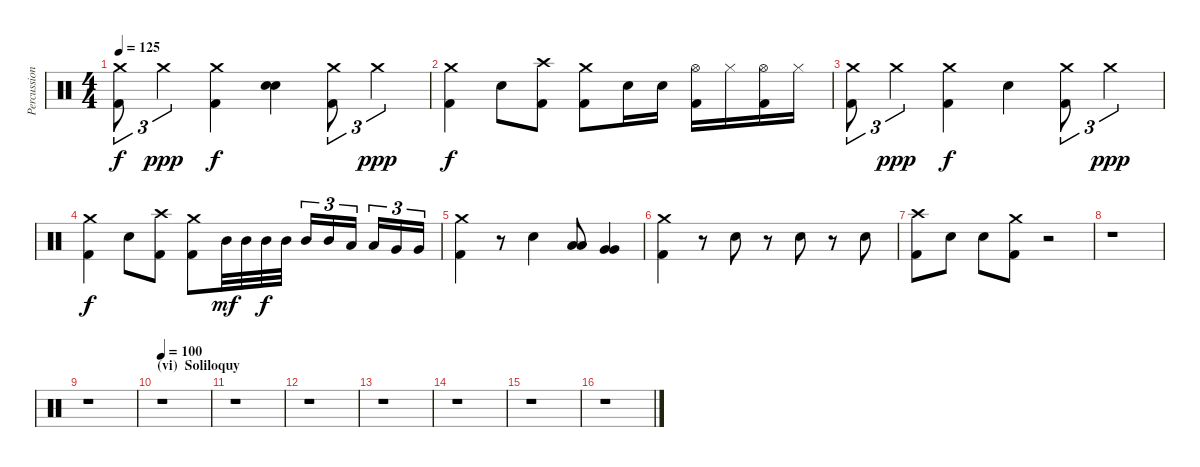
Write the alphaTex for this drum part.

\track ("Percussion" "Percussion") {instrument percussion}
\staff {score}
\articulation defaults
\ts (4 4)
\tempo 125
\clef neutral
\ks c
("Kick (hit) 2" "Crash medium (hit)").8{tu (3 2) dy f} "Crash medium (hit)".4{tu (3 2) dy ppp} ("Kick (hit) 2" "Crash medium (hit)").4{dy f} ("Electric Snare (hit)" "Electric Snare (hit)").4 ("Kick (hit) 2" "Crash medium (hit)").8{tu (3 2)} "Crash medium (hit)".4{tu (3 2) dy ppp} |
("Kick (hit) 2" "Crash medium (hit)").4{dy f} "Electric Snare (hit)".8 ("Kick (hit) 2" "Crash high (hit)").8 ("Kick (hit) 2" "Crash medium (hit)").8 "Electric Snare (hit)".16 "Electric Snare (hit)".16 ("Kick (hit) 2" "Hi-Hat (open)").16 "Hi-Hat (closed)".16 ("Kick (hit) 2" "Hi-Hat (open)").16 "Hi-Hat (closed)".16 |
("Kick (hit) 2" "Crash medium (hit)").8{tu (3 2)} "Crash medium (hit)".4{tu (3 2) dy ppp} ("Kick (hit) 2" "Crash medium (hit)").4{dy f} "Electric Snare (hit)".4 ("Kick (hit) 2" "Crash medium (hit)").8{tu (3 2)} "Crash medium (hit)".4{tu (3 2) dy ppp} |
("Kick (hit) 2" "Crash medium (hit)").4{dy f} "Electric Snare (hit)".8 ("Kick (hit) 2" "Crash high (hit)").8 ("Kick (hit) 2" "Crash medium (hit)").8 "Mid Tom (hit)".32{dy mf} "Mid Tom (hit)".32 "Mid Tom (hit)".32{dy f} "Mid Tom (hit)".32 "Mid Tom (hit)".16{tu (3 2)} "Mid Tom (hit)".16{tu (3 2)} "Low Tom (hit)".16{tu (3 2)} "Low Tom (hit)".16{tu (3 2)} "Very Low Tom (hit)".16{tu (3 2)} "Very Low Tom (hit)".16{tu (3 2)} |
("Kick (hit) 2" "Crash medium (hit)").4 r.8 "Electric Snare (hit)".4 ("Low Tom (hit)" "Low Tom (hit)").8 ("Very Low Tom (hit)" "Very Low Tom (hit)").4 |
("Kick (hit) 2" "Crash medium (hit)").4 r.8 "Electric Snare (hit)".8 r.8 "Electric Snare (hit)".8 r.8 "Electric Snare (hit)".8 |
("Kick (hit) 2" "Crash high (hit)").8 "Electric Snare (hit)".8 "Electric Snare (hit)".8 ("Kick (hit) 2" "Crash medium (hit)").8 r.2 |
r.1 |
r.1 |
\section ("" "(vi)  Soliloquy")
\tempo 100
r.1 |
r.1 |
r.1 |
r.1 |
r.1 |
r.1 |
r.1
